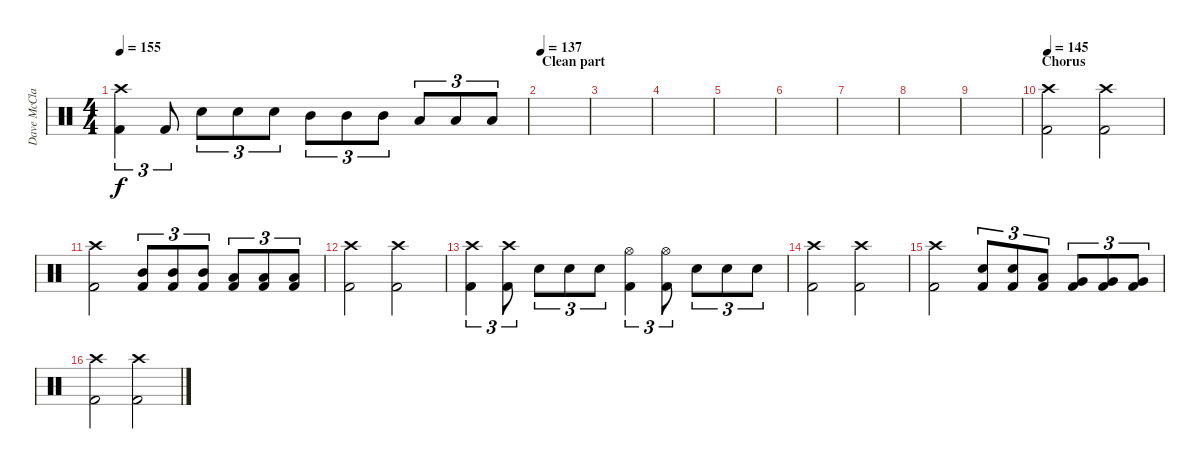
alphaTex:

\track ("Dave McClain" "Dave McCla") {instrument percussion}
\staff {score}
\articulation defaults
\ts (4 4)
\tempo 155
\clef neutral
\ks c
("Crash high (hit)" "Kick (hit) 2").4{tu (3 2) dy f} "Kick (hit) 2".8{tu (3 2)} "Electric Snare (hit)".8{tu (3 2)} "Electric Snare (hit)".8{tu (3 2)} "Electric Snare (hit)".8{tu (3 2)} "Mid Tom (hit)".8{tu (3 2)} "Mid Tom (hit)".8{tu (3 2)} "Mid Tom (hit)".8{tu (3 2)} "Low Tom (hit)".8{tu (3 2)} "Low Tom (hit)".8{tu (3 2)} "Low Tom (hit)".8{tu (3 2)} |
\section ("" "Clean part")
\tempo 137
|
|
|
|
|
|
|
|
\section ("" "Chorus")
\tempo 145
("Crash high (hit)" "Kick (hit) 2").2 ("Crash high (hit)" "Kick (hit) 2").2 |
("Crash high (hit)" "Kick (hit) 2").2 ("Mid Tom (hit)" "Kick (hit) 2").8{tu (3 2)} ("Mid Tom (hit)" "Kick (hit) 2").8{tu (3 2)} ("Mid Tom (hit)" "Kick (hit) 2").8{tu (3 2)} ("Low Tom (hit)" "Kick (hit) 2").8{tu (3 2)} ("Low Tom (hit)" "Kick (hit) 2").8{tu (3 2)} ("Low Tom (hit)" "Kick (hit) 2").8{tu (3 2)} |
("Crash high (hit)" "Kick (hit) 2").2 ("Crash high (hit)" "Kick (hit) 2").2 |
("Crash high (hit)" "Kick (hit) 2").4{tu (3 2)} ("Crash high (hit)" "Kick (hit) 2").8{tu (3 2)} "Electric Snare (hit)".8{tu (3 2)} "Electric Snare (hit)".8{tu (3 2)} "Electric Snare (hit)".8{tu (3 2)} ("Hi-Hat (open)" "Kick (hit) 2").4{tu (3 2)} ("Hi-Hat (open)" "Kick (hit) 2").8{tu (3 2)} "Electric Snare (hit)".8{tu (3 2)} "Electric Snare (hit)".8{tu (3 2)} "Electric Snare (hit)".8{tu (3 2)} |
("Crash high (hit)" "Kick (hit) 2").2 ("Crash high (hit)" "Kick (hit) 2").2 |
("Crash high (hit)" "Kick (hit) 2").2 ("Electric Snare (hit)" "Kick (hit) 2").8{tu (3 2)} ("Electric Snare (hit)" "Kick (hit) 2").8{tu (3 2)} ("Low Tom (hit)" "Kick (hit) 2").8{tu (3 2)} ("Very Low Tom (hit)" "Kick (hit) 2").8{tu (3 2)} ("Very Low Tom (hit)" "Kick (hit) 2").8{tu (3 2)} ("Very Low Tom (hit)" "Kick (hit) 2").8{tu (3 2)} |
("Crash high (hit)" "Kick (hit) 2").2 ("Crash high (hit)" "Kick (hit) 2").2
